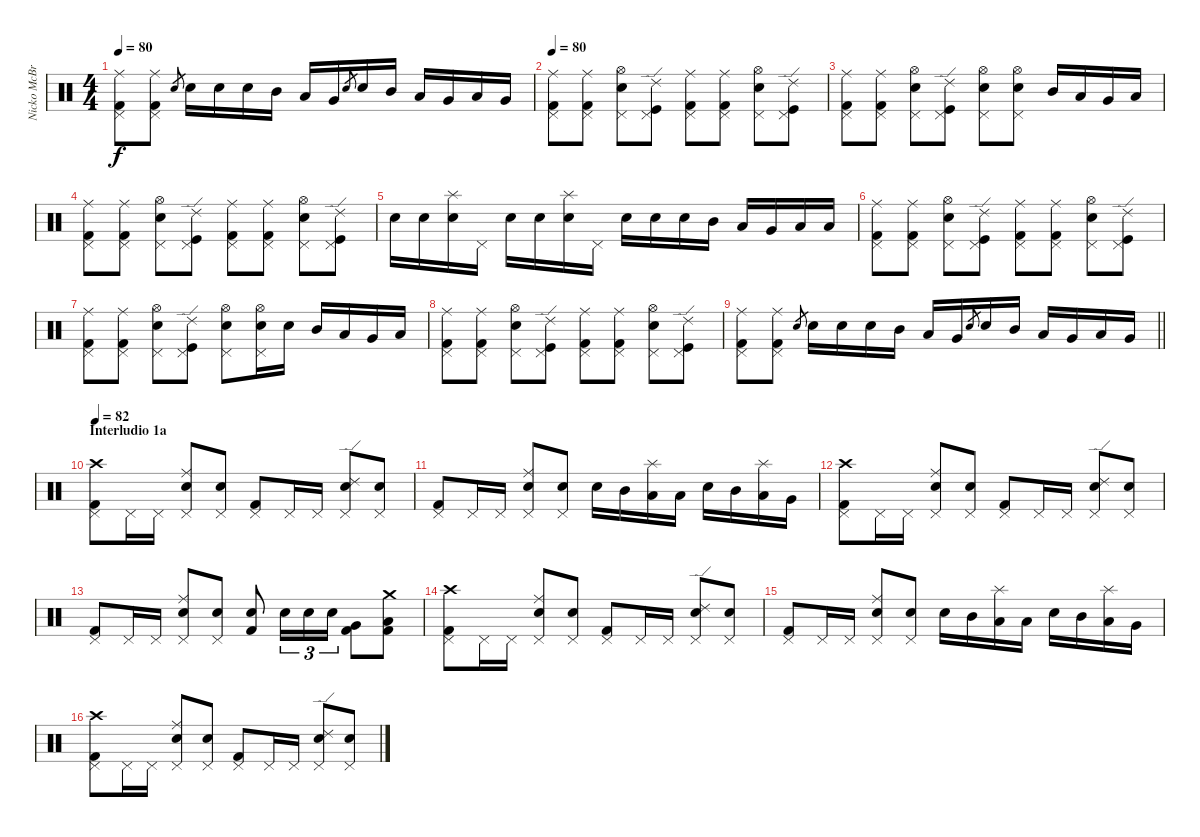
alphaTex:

\track ("Nicko McBrain" "Nicko McBr") {instrument percussion}
\staff {score}
\articulation defaults
\ts (4 4)
\tempo 80
\clef neutral
\ks c
("Kick (hit) 2" "Pedal Hi-Hat (hit)" "Ride (middle)").8{dy f} ("Kick (hit) 2" "Pedal Hi-Hat (hit)" "Ride (middle)").8 "Snare (hit) 2".8{gr} "Snare (hit) 2".16 "Snare (hit) 2".16 "Snare (hit) 2".16 "Mid Tom (hit)".16 "Low Tom (hit)".16 "Very Low Tom (hit)".16 "Snare (hit) 2".8{gr} "Snare (hit) 2".16 "Mid Tom (hit)".16 "Low Tom (hit)".16 "Very Low Tom (hit)".16 "Low Floor Tom (hit)".16 "Very Low Tom (hit)".16 |
\tempo 80
("Kick (hit) 2" "Pedal Hi-Hat (hit)" "Ride (middle)").8 ("Kick (hit) 2" "Pedal Hi-Hat (hit)" "Ride (middle)").8 ("Snare (hit) 2" "Pedal Hi-Hat (hit)" "Hi-Hat (open)").8 ("Kick (hit)" "Pedal Hi-Hat (hit)" "Ride (edge) 2").8 ("Kick (hit) 2" "Pedal Hi-Hat (hit)" "Ride (middle)").8 ("Kick (hit) 2" "Pedal Hi-Hat (hit)" "Ride (middle)").8 ("Snare (hit) 2" "Pedal Hi-Hat (hit)" "Hi-Hat (open)").8 ("Kick (hit)" "Pedal Hi-Hat (hit)" "Ride (edge) 2").8 |
("Kick (hit) 2" "Pedal Hi-Hat (hit)" "Ride (middle)").8 ("Kick (hit) 2" "Pedal Hi-Hat (hit)" "Ride (middle)").8 ("Snare (hit) 2" "Pedal Hi-Hat (hit)" "Hi-Hat (open)").8 ("Kick (hit)" "Pedal Hi-Hat (hit)" "Ride (edge) 2").8 ("Snare (hit) 2" "Pedal Hi-Hat (hit)" "Hi-Hat (open)").8 ("Snare (hit) 2" "Pedal Hi-Hat (hit)" "Hi-Hat (open)").8 "Mid Tom (hit)".16 "Low Tom (hit)".16 "Very Low Tom (hit)".16 "Low Floor Tom (hit)".16 |
("Kick (hit) 2" "Pedal Hi-Hat (hit)" "Ride (middle)").8 ("Kick (hit) 2" "Pedal Hi-Hat (hit)" "Ride (middle)").8 ("Snare (hit) 2" "Pedal Hi-Hat (hit)" "Hi-Hat (open)").8 ("Kick (hit)" "Pedal Hi-Hat (hit)" "Ride (edge) 2").8 ("Kick (hit) 2" "Pedal Hi-Hat (hit)" "Ride (middle)").8 ("Kick (hit) 2" "Pedal Hi-Hat (hit)" "Ride (middle)").8 ("Snare (hit) 2" "Pedal Hi-Hat (hit)" "Hi-Hat (open)").8 ("Kick (hit)" "Pedal Hi-Hat (hit)" "Ride (edge) 2").8 |
"Snare (hit) 2".16 "Snare (hit) 2".16 ("Snare (hit) 2" "Splash (hit)").16 "Pedal Hi-Hat (hit)".16 "Snare (hit) 2".16 "Snare (hit) 2".16 ("Snare (hit) 2" "Splash (hit)").16 "Pedal Hi-Hat (hit)".16 "Snare (hit) 2".16 "Snare (hit) 2".16 "Snare (hit) 2".16 "Mid Tom (hit)".16 "Low Tom (hit)".16 "Very Low Tom (hit)".16 "Low Floor Tom (hit)".16 "Low Floor Tom (hit)".16 |
("Kick (hit) 2" "Pedal Hi-Hat (hit)" "Ride (middle)").8 ("Kick (hit) 2" "Pedal Hi-Hat (hit)" "Ride (middle)").8 ("Snare (hit) 2" "Pedal Hi-Hat (hit)" "Hi-Hat (open)").8 ("Kick (hit)" "Pedal Hi-Hat (hit)" "Ride (edge) 2").8 ("Kick (hit) 2" "Pedal Hi-Hat (hit)" "Ride (middle)").8 ("Kick (hit) 2" "Pedal Hi-Hat (hit)" "Ride (middle)").8 ("Snare (hit) 2" "Pedal Hi-Hat (hit)" "Hi-Hat (open)").8 ("Kick (hit)" "Pedal Hi-Hat (hit)" "Ride (edge) 2").8 |
("Kick (hit) 2" "Pedal Hi-Hat (hit)" "Ride (middle)").8 ("Kick (hit) 2" "Pedal Hi-Hat (hit)" "Ride (middle)").8 ("Snare (hit) 2" "Pedal Hi-Hat (hit)" "Hi-Hat (open)").8 ("Kick (hit)" "Pedal Hi-Hat (hit)" "Ride (edge) 2").8 ("Snare (hit) 2" "Pedal Hi-Hat (hit)" "Hi-Hat (open)").8 ("Snare (hit) 2" "Pedal Hi-Hat (hit)" "Hi-Hat (open)").16 "Snare (hit) 2".16 "Mid Tom (hit)".16 "Low Tom (hit)".16 "Very Low Tom (hit)".16 "Low Floor Tom (hit)".16 |
("Kick (hit) 2" "Pedal Hi-Hat (hit)" "Ride (middle)").8 ("Kick (hit) 2" "Pedal Hi-Hat (hit)" "Ride (middle)").8 ("Snare (hit) 2" "Pedal Hi-Hat (hit)" "Hi-Hat (open)").8 ("Kick (hit)" "Pedal Hi-Hat (hit)" "Ride (edge) 2").8 ("Kick (hit) 2" "Pedal Hi-Hat (hit)" "Ride (middle)").8 ("Kick (hit) 2" "Pedal Hi-Hat (hit)" "Ride (middle)").8 ("Snare (hit) 2" "Pedal Hi-Hat (hit)" "Hi-Hat (open)").8 ("Kick (hit)" "Pedal Hi-Hat (hit)" "Ride (edge) 2").8 |
\barLineRight lightlight
("Kick (hit) 2" "Pedal Hi-Hat (hit)" "Ride (middle)").8 ("Kick (hit) 2" "Pedal Hi-Hat (hit)" "Ride (middle)").8 "Snare (hit) 2".8{gr} "Snare (hit) 2".16 "Snare (hit) 2".16 "Snare (hit) 2".16 "Mid Tom (hit)".16 "Low Tom (hit)".16 "Very Low Tom (hit)".16 "Snare (hit) 2".8{gr} "Snare (hit) 2".16 "Mid Tom (hit)".16 "Low Tom (hit)".16 "Very Low Tom (hit)".16 "Low Floor Tom (hit)".16 "Very Low Tom (hit)".16 |
\section ("" "Interludio 1a")
\tempo 82
("Kick (hit) 2" "Pedal Hi-Hat (hit)" "Crash high (hit)").8 "Pedal Hi-Hat (hit)".16 "Pedal Hi-Hat (hit)".16 ("Snare (hit) 2" "Pedal Hi-Hat (hit)" "Ride (middle)").8 ("Snare (hit) 2" "Pedal Hi-Hat (hit)").8 ("Kick (hit) 2" "Pedal Hi-Hat (hit)").8 "Pedal Hi-Hat (hit)".16 "Pedal Hi-Hat (hit)".16 ("Snare (hit) 2" "Pedal Hi-Hat (hit)" "Ride (edge) 2").8 ("Snare (hit) 2" "Pedal Hi-Hat (hit)").8 |
("Kick (hit) 2" "Pedal Hi-Hat (hit)").8 "Pedal Hi-Hat (hit)".16 "Pedal Hi-Hat (hit)".16 ("Snare (hit) 2" "Pedal Hi-Hat (hit)" "Ride (middle)").8 ("Snare (hit) 2" "Pedal Hi-Hat (hit)").8 "Snare (hit) 2".16 "Mid Tom (hit)".16 ("Low Floor Tom (hit)" "Splash (hit)").16 "Low Floor Tom (hit)".16 "Snare (hit) 2".16 "Mid Tom (hit)".16 ("Low Tom (hit)" "Splash (hit)").16 "Very Low Tom (hit)".16 |
("Kick (hit) 2" "Pedal Hi-Hat (hit)" "Crash high (hit)").8 "Pedal Hi-Hat (hit)".16 "Pedal Hi-Hat (hit)".16 ("Snare (hit) 2" "Pedal Hi-Hat (hit)" "Ride (middle)").8 ("Snare (hit) 2" "Pedal Hi-Hat (hit)").8 ("Kick (hit) 2" "Pedal Hi-Hat (hit)").8 "Pedal Hi-Hat (hit)".16 "Pedal Hi-Hat (hit)".16 ("Snare (hit) 2" "Pedal Hi-Hat (hit)" "Ride (edge) 2").8 ("Snare (hit) 2" "Pedal Hi-Hat (hit)").8 |
("Kick (hit) 2" "Pedal Hi-Hat (hit)").8 "Pedal Hi-Hat (hit)".16 "Pedal Hi-Hat (hit)".16 ("Snare (hit) 2" "Pedal Hi-Hat (hit)" "Ride (middle)").8 ("Snare (hit) 2" "Pedal Hi-Hat (hit)").8 ("Kick (hit) 2" "Snare (hit) 2").8 "Snare (hit) 2".16{tu (3 2)} "Snare (hit) 2".16{tu (3 2)} "Snare (hit) 2".16{tu (3 2)} ("Very Low Tom (hit)" "Kick (hit) 2").8 ("Low Floor Tom (hit)" "Kick (hit) 2" "Crash medium (hit)").8 |
("Kick (hit) 2" "Pedal Hi-Hat (hit)" "Crash high (hit)").8 "Pedal Hi-Hat (hit)".16 "Pedal Hi-Hat (hit)".16 ("Snare (hit) 2" "Pedal Hi-Hat (hit)" "Ride (middle)").8 ("Snare (hit) 2" "Pedal Hi-Hat (hit)").8 ("Kick (hit) 2" "Pedal Hi-Hat (hit)").8 "Pedal Hi-Hat (hit)".16 "Pedal Hi-Hat (hit)".16 ("Snare (hit) 2" "Pedal Hi-Hat (hit)" "Ride (edge) 2").8 ("Snare (hit) 2" "Pedal Hi-Hat (hit)").8 |
("Kick (hit) 2" "Pedal Hi-Hat (hit)").8 "Pedal Hi-Hat (hit)".16 "Pedal Hi-Hat (hit)".16 ("Snare (hit) 2" "Pedal Hi-Hat (hit)" "Ride (middle)").8 ("Snare (hit) 2" "Pedal Hi-Hat (hit)").8 "Snare (hit) 2".16 "Mid Tom (hit)".16 ("Low Floor Tom (hit)" "Splash (hit)").16 "Low Floor Tom (hit)".16 "Snare (hit) 2".16 "Mid Tom (hit)".16 ("Low Tom (hit)" "Splash (hit)").16 "Very Low Tom (hit)".16 |
("Kick (hit) 2" "Pedal Hi-Hat (hit)" "Crash high (hit)").8 "Pedal Hi-Hat (hit)".16 "Pedal Hi-Hat (hit)".16 ("Snare (hit) 2" "Pedal Hi-Hat (hit)" "Ride (middle)").8 ("Snare (hit) 2" "Pedal Hi-Hat (hit)").8 ("Kick (hit) 2" "Pedal Hi-Hat (hit)").8 "Pedal Hi-Hat (hit)".16 "Pedal Hi-Hat (hit)".16 ("Snare (hit) 2" "Pedal Hi-Hat (hit)" "Ride (edge) 2").8 ("Snare (hit) 2" "Pedal Hi-Hat (hit)").8
